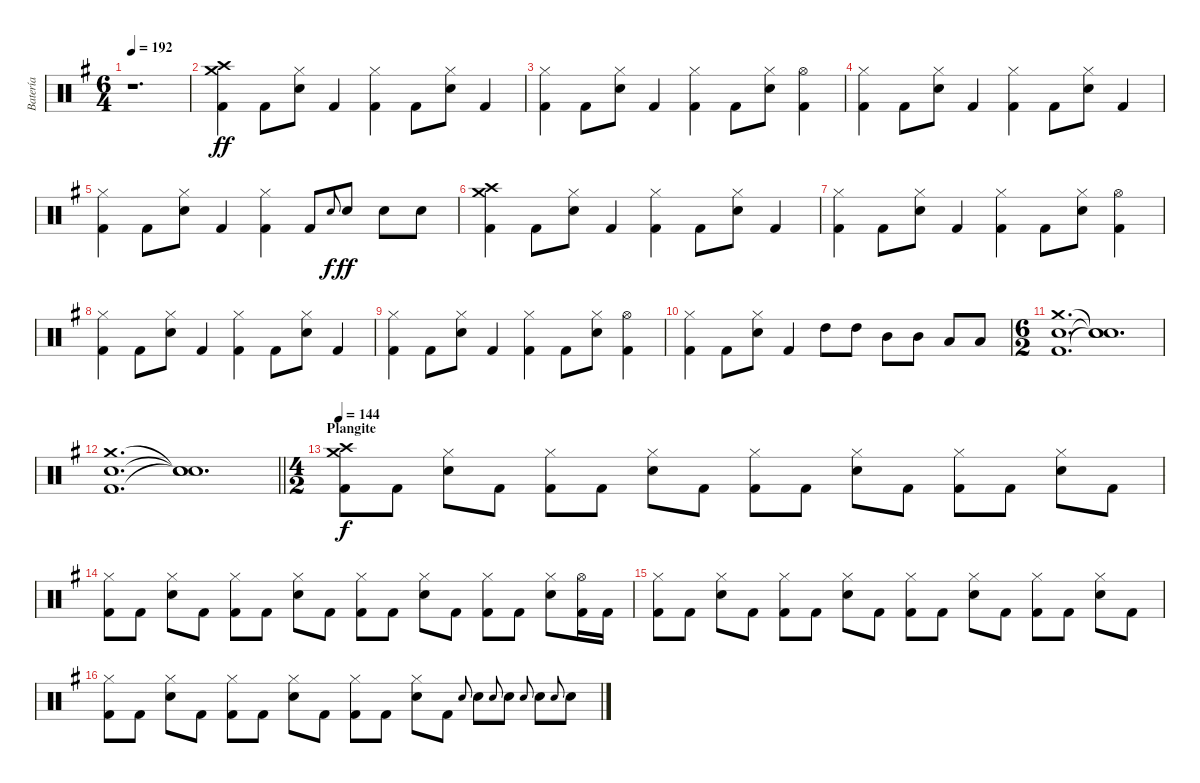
\track ("Batería" "Batería") {instrument percussion}
\staff {score}
\articulation defaults
\ts (6 4)
\tempo 192
\clef neutral
\ks eminor
r.1{d dy f} |
("Crash medium (hit)" "Crash high (hit)" "Kick (hit) 2").4{dy ff} "Kick (hit) 2".8 ("Hi-Hat (closed)" "Snare (hit) 2").8 "Kick (hit) 2".4 ("Hi-Hat (closed)" "Kick (hit) 2").4 "Kick (hit) 2".8 ("Hi-Hat (closed)" "Snare (hit) 2").8 "Kick (hit) 2".4 |
("Hi-Hat (closed)" "Kick (hit) 2").4 "Kick (hit) 2".8 ("Hi-Hat (closed)" "Snare (hit) 2").8 "Kick (hit) 2".4 ("Hi-Hat (closed)" "Kick (hit) 2").4 "Kick (hit) 2".8 ("Hi-Hat (closed)" "Snare (hit) 2").8 ("Hi-Hat (open)" "Kick (hit) 2").4 |
("Hi-Hat (closed)" "Kick (hit) 2").4 "Kick (hit) 2".8 ("Hi-Hat (closed)" "Snare (hit) 2").8 "Kick (hit) 2".4 ("Hi-Hat (closed)" "Kick (hit) 2").4 "Kick (hit) 2".8 ("Hi-Hat (closed)" "Snare (hit) 2").8 "Kick (hit) 2".4 |
("Hi-Hat (closed)" "Kick (hit) 2").4 "Kick (hit) 2".8 ("Hi-Hat (closed)" "Snare (hit) 2").8 "Kick (hit) 2".4 ("Hi-Hat (closed)" "Kick (hit) 2").4 "Kick (hit) 2".8 "Snare (hit) 2".8{gr onbeat dy f} "Snare (hit) 2".8{dy ff} "Snare (hit) 2".8 "Snare (hit) 2".8 |
("Crash medium (hit)" "Crash high (hit)" "Kick (hit) 2").4 "Kick (hit) 2".8 ("Hi-Hat (closed)" "Snare (hit) 2").8 "Kick (hit) 2".4 ("Hi-Hat (closed)" "Kick (hit) 2").4 "Kick (hit) 2".8 ("Hi-Hat (closed)" "Snare (hit) 2").8 "Kick (hit) 2".4 |
("Hi-Hat (closed)" "Kick (hit) 2").4 "Kick (hit) 2".8 ("Hi-Hat (closed)" "Snare (hit) 2").8 "Kick (hit) 2".4 ("Hi-Hat (closed)" "Kick (hit) 2").4 "Kick (hit) 2".8 ("Hi-Hat (closed)" "Snare (hit) 2").8 ("Hi-Hat (open)" "Kick (hit) 2").4 |
("Hi-Hat (closed)" "Kick (hit) 2").4 "Kick (hit) 2".8 ("Hi-Hat (closed)" "Snare (hit) 2").8 "Kick (hit) 2".4 ("Hi-Hat (closed)" "Kick (hit) 2").4 "Kick (hit) 2".8 ("Hi-Hat (closed)" "Snare (hit) 2").8 "Kick (hit) 2".4 |
("Hi-Hat (closed)" "Kick (hit) 2").4 "Kick (hit) 2".8 ("Hi-Hat (closed)" "Snare (hit) 2").8 "Kick (hit) 2".4 ("Hi-Hat (closed)" "Kick (hit) 2").4 "Kick (hit) 2".8 ("Hi-Hat (closed)" "Snare (hit) 2").8 ("Hi-Hat (open)" "Kick (hit) 2").4 |
("Hi-Hat (closed)" "Kick (hit) 2").4 "Kick (hit) 2".8 ("Hi-Hat (closed)" "Snare (hit) 2").8 "Kick (hit) 2".4 "High Tom (hit)".8 "High Tom (hit)".8 "Mid Tom (hit)".8 "Mid Tom (hit)".8 "Low Tom (hit)".8 "Low Tom (hit)".8 |
\ts (6 2)
("Crash medium (hit)" "Snare (hit) 2" "Kick (hit) 2").1{d} ("Snare (hit)"{t} "Snare (hit)"{t} "Snare (hit)"{t}).1{d} |
\barLineRight lightlight
("Crash medium (hit)" "Snare (hit) 2" "Kick (hit) 2").1{d} ("Snare (hit)"{t} "Snare (hit)"{t} "Snare (hit)"{t}).1{d} |
\ts (4 2)
\section ("" "Plangite")
\tempo 144
("Crash medium (hit)" "Crash high (hit)" "Kick (hit) 2").8{dy f} "Kick (hit) 2".8 ("Hi-Hat (closed)" "Snare (hit) 2").8 "Kick (hit) 2".8 ("Hi-Hat (closed)" "Kick (hit) 2").8 "Kick (hit) 2".8 ("Hi-Hat (closed)" "Snare (hit) 2").8 "Kick (hit) 2".8 ("Hi-Hat (closed)" "Kick (hit) 2").8 "Kick (hit) 2".8 ("Hi-Hat (closed)" "Snare (hit) 2").8 "Kick (hit) 2".8 ("Hi-Hat (closed)" "Kick (hit) 2").8 "Kick (hit) 2".8 ("Hi-Hat (closed)" "Snare (hit) 2").8 "Kick (hit) 2".8 |
("Hi-Hat (closed)" "Kick (hit) 2").8 "Kick (hit) 2".8 ("Hi-Hat (closed)" "Snare (hit) 2").8 "Kick (hit) 2".8 ("Hi-Hat (closed)" "Kick (hit) 2").8 "Kick (hit) 2".8 ("Hi-Hat (closed)" "Snare (hit) 2").8 "Kick (hit) 2".8 ("Hi-Hat (closed)" "Kick (hit) 2").8 "Kick (hit) 2".8 ("Hi-Hat (closed)" "Snare (hit) 2").8 "Kick (hit) 2".8 ("Hi-Hat (closed)" "Kick (hit) 2").8 "Kick (hit) 2".8 ("Hi-Hat (closed)" "Snare (hit) 2").8 ("Hi-Hat (open)" "Kick (hit) 2").16 "Kick (hit) 2".16 |
("Hi-Hat (closed)" "Kick (hit) 2").8 "Kick (hit) 2".8 ("Hi-Hat (closed)" "Snare (hit) 2").8 "Kick (hit) 2".8 ("Hi-Hat (closed)" "Kick (hit) 2").8 "Kick (hit) 2".8 ("Hi-Hat (closed)" "Snare (hit) 2").8 "Kick (hit) 2".8 ("Hi-Hat (closed)" "Kick (hit) 2").8 "Kick (hit) 2".8 ("Hi-Hat (closed)" "Snare (hit) 2").8 "Kick (hit) 2".8 ("Hi-Hat (closed)" "Kick (hit) 2").8 "Kick (hit) 2".8 ("Hi-Hat (closed)" "Snare (hit) 2").8 "Kick (hit) 2".8 |
("Hi-Hat (closed)" "Kick (hit) 2").8 "Kick (hit) 2".8 ("Hi-Hat (closed)" "Snare (hit) 2").8 "Kick (hit) 2".8 ("Hi-Hat (closed)" "Kick (hit) 2").8 "Kick (hit) 2".8 ("Hi-Hat (closed)" "Snare (hit) 2").8 "Kick (hit) 2".8 ("Hi-Hat (closed)" "Kick (hit) 2").8 "Kick (hit) 2".8 ("Hi-Hat (closed)" "Snare (hit) 2").8 "Kick (hit) 2".8 "Snare (hit) 2".8{gr onbeat} "Snare (hit) 2".8 "Snare (hit) 2".8{gr onbeat} "Snare (hit) 2".8 "Snare (hit) 2".8{gr onbeat} "Snare (hit) 2".8 "Snare (hit) 2".8{gr onbeat} "Snare (hit) 2".8
